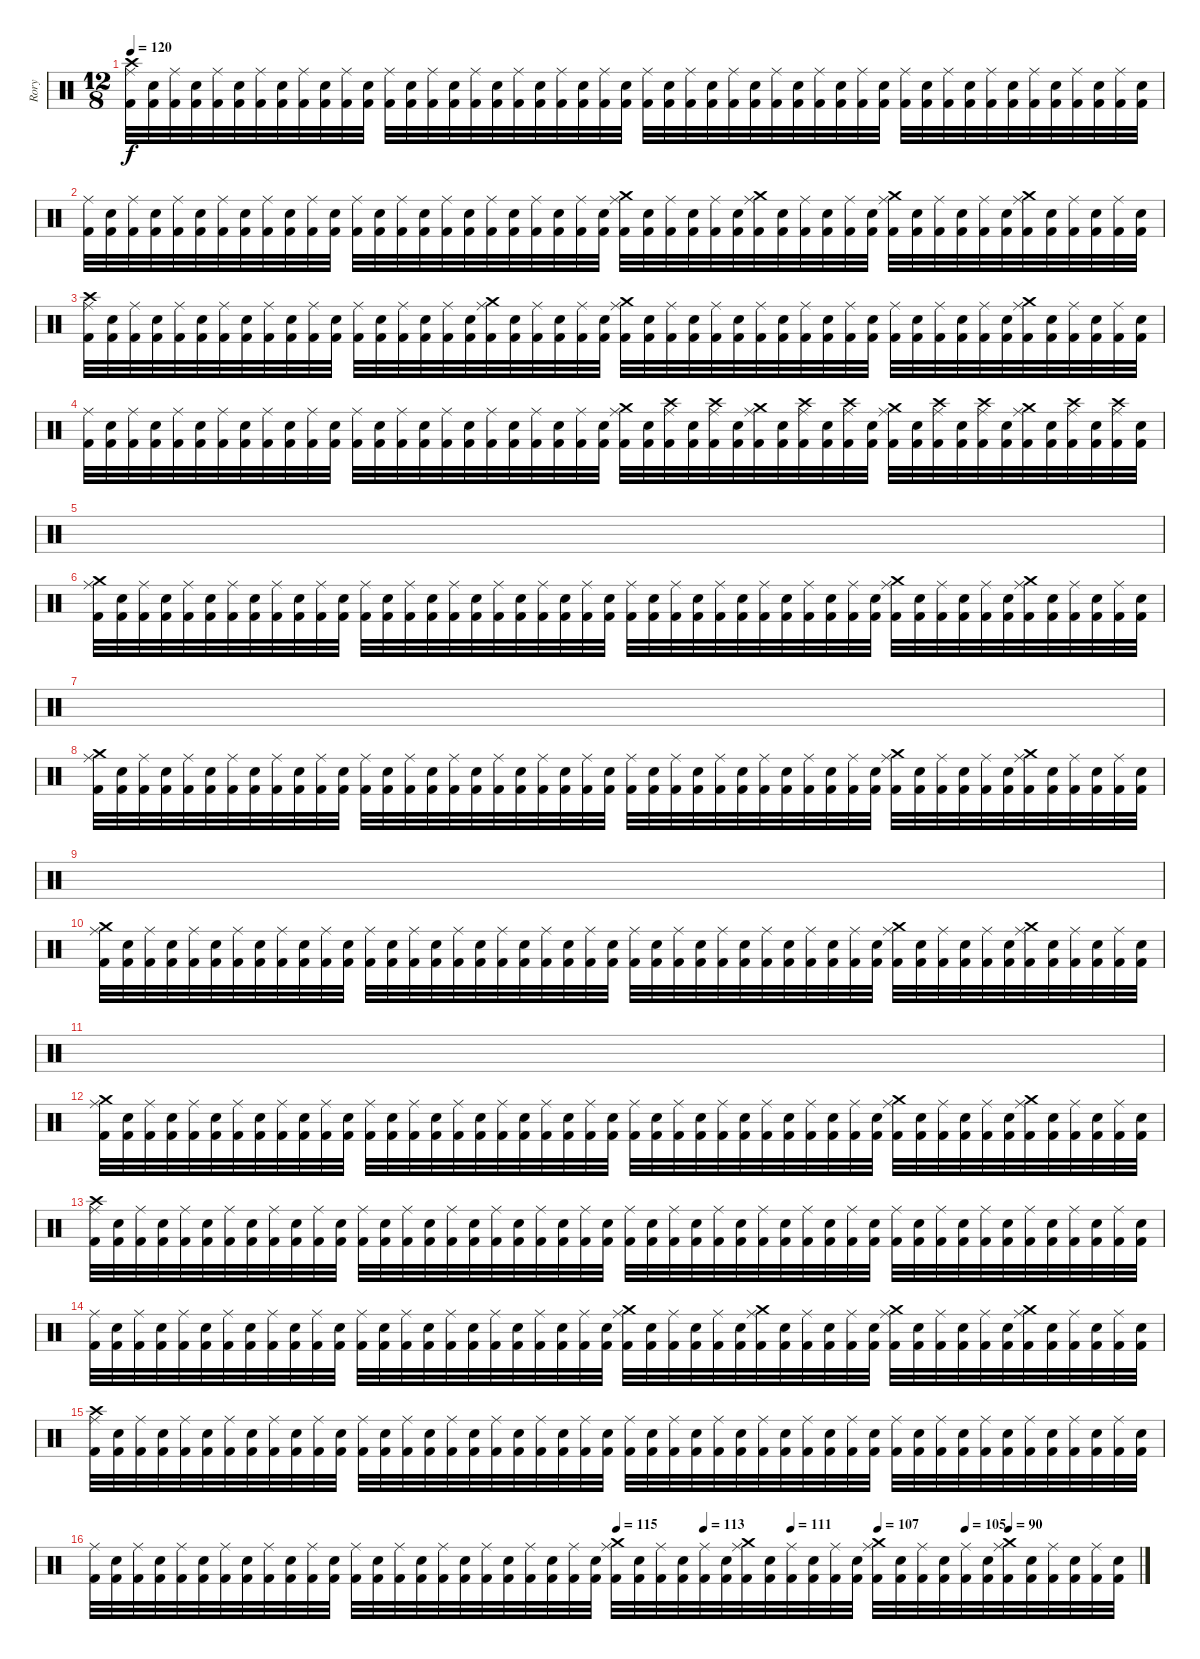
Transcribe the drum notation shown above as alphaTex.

\track ("Rory" "Rory") {instrument percussion}
\staff {score}
\articulation defaults
\ts (12 8)
\tempo 120
\clef neutral
\ks c
("Kick (hit) 2" "Crash high (hit)" "Ride (middle)").32{dy f} ("Kick (hit) 2" "Electric Snare (hit)").32 ("Kick (hit) 2" "Ride (middle)").32 ("Kick (hit) 2" "Electric Snare (hit)").32 ("Kick (hit) 2" "Ride (middle)").32 ("Kick (hit) 2" "Electric Snare (hit)").32 ("Kick (hit) 2" "Ride (middle)").32 ("Kick (hit) 2" "Electric Snare (hit)").32 ("Kick (hit) 2" "Ride (middle)").32 ("Kick (hit) 2" "Electric Snare (hit)").32 ("Kick (hit) 2" "Ride (middle)").32 ("Kick (hit) 2" "Electric Snare (hit)").32 ("Kick (hit) 2" "Ride (middle)").32 ("Kick (hit) 2" "Electric Snare (hit)").32 ("Kick (hit) 2" "Ride (middle)").32 ("Kick (hit) 2" "Electric Snare (hit)").32 ("Kick (hit) 2" "Ride (middle)").32 ("Kick (hit) 2" "Electric Snare (hit)").32 ("Kick (hit) 2" "Ride (middle)").32 ("Kick (hit) 2" "Electric Snare (hit)").32 ("Kick (hit) 2" "Ride (middle)").32 ("Kick (hit) 2" "Electric Snare (hit)").32 ("Kick (hit) 2" "Ride (middle)").32 ("Kick (hit) 2" "Electric Snare (hit)").32 ("Kick (hit) 2" "Ride (middle)").32 ("Kick (hit) 2" "Electric Snare (hit)").32 ("Kick (hit) 2" "Ride (middle)").32 ("Kick (hit) 2" "Electric Snare (hit)").32 ("Kick (hit) 2" "Ride (middle)").32 ("Kick (hit) 2" "Electric Snare (hit)").32 ("Kick (hit) 2" "Ride (middle)").32 ("Kick (hit) 2" "Electric Snare (hit)").32 ("Kick (hit) 2" "Ride (middle)").32 ("Kick (hit) 2" "Electric Snare (hit)").32 ("Kick (hit) 2" "Ride (middle)").32 ("Kick (hit) 2" "Electric Snare (hit)").32 ("Kick (hit) 2" "Ride (middle)").32 ("Kick (hit) 2" "Electric Snare (hit)").32 ("Kick (hit) 2" "Ride (middle)").32 ("Kick (hit) 2" "Electric Snare (hit)").32 ("Kick (hit) 2" "Ride (middle)").32 ("Kick (hit) 2" "Electric Snare (hit)").32 ("Kick (hit) 2" "Ride (middle)").32 ("Kick (hit) 2" "Electric Snare (hit)").32 ("Kick (hit) 2" "Ride (middle)").32 ("Kick (hit) 2" "Electric Snare (hit)").32 ("Kick (hit) 2" "Ride (middle)").32 ("Kick (hit) 2" "Electric Snare (hit)").32 |
("Kick (hit) 2" "Ride (middle)").32 ("Kick (hit) 2" "Electric Snare (hit)").32 ("Kick (hit) 2" "Ride (middle)").32 ("Kick (hit) 2" "Electric Snare (hit)").32 ("Kick (hit) 2" "Ride (middle)").32 ("Kick (hit) 2" "Electric Snare (hit)").32 ("Kick (hit) 2" "Ride (middle)").32 ("Kick (hit) 2" "Electric Snare (hit)").32 ("Kick (hit) 2" "Ride (middle)").32 ("Kick (hit) 2" "Electric Snare (hit)").32 ("Kick (hit) 2" "Ride (middle)").32 ("Kick (hit) 2" "Electric Snare (hit)").32 ("Kick (hit) 2" "Ride (middle)").32 ("Kick (hit) 2" "Electric Snare (hit)").32 ("Kick (hit) 2" "Ride (middle)").32 ("Kick (hit) 2" "Electric Snare (hit)").32 ("Kick (hit) 2" "Ride (middle)").32 ("Kick (hit) 2" "Electric Snare (hit)").32 ("Kick (hit) 2" "Ride (middle)").32 ("Kick (hit) 2" "Electric Snare (hit)").32 ("Kick (hit) 2" "Ride (middle)").32 ("Kick (hit) 2" "Electric Snare (hit)").32 ("Kick (hit) 2" "Ride (middle)").32 ("Kick (hit) 2" "Electric Snare (hit)").32 ("Kick (hit) 2" "Crash medium (hit)" "Ride (middle)").32 ("Kick (hit) 2" "Electric Snare (hit)").32 ("Kick (hit) 2" "Ride (middle)").32 ("Kick (hit) 2" "Electric Snare (hit)").32 ("Kick (hit) 2" "Ride (middle)").32 ("Kick (hit) 2" "Electric Snare (hit)").32 ("Kick (hit) 2" "Crash medium (hit)" "Ride (middle)").32 ("Kick (hit) 2" "Electric Snare (hit)").32 ("Kick (hit) 2" "Ride (middle)").32 ("Kick (hit) 2" "Electric Snare (hit)").32 ("Kick (hit) 2" "Ride (middle)").32 ("Kick (hit) 2" "Electric Snare (hit)").32 ("Kick (hit) 2" "Crash medium (hit)" "Ride (middle)").32 ("Kick (hit) 2" "Electric Snare (hit)").32 ("Kick (hit) 2" "Ride (middle)").32 ("Kick (hit) 2" "Electric Snare (hit)").32 ("Kick (hit) 2" "Ride (middle)").32 ("Kick (hit) 2" "Electric Snare (hit)").32 ("Kick (hit) 2" "Crash medium (hit)" "Ride (middle)").32 ("Kick (hit) 2" "Electric Snare (hit)").32 ("Kick (hit) 2" "Ride (middle)").32 ("Kick (hit) 2" "Electric Snare (hit)").32 ("Kick (hit) 2" "Ride (middle)").32 ("Kick (hit) 2" "Electric Snare (hit)").32 |
("Kick (hit) 2" "Crash high (hit)" "Ride (middle)").32 ("Kick (hit) 2" "Electric Snare (hit)").32 ("Kick (hit) 2" "Ride (middle)").32 ("Kick (hit) 2" "Electric Snare (hit)").32 ("Kick (hit) 2" "Ride (middle)").32 ("Kick (hit) 2" "Electric Snare (hit)").32 ("Kick (hit) 2" "Ride (middle)").32 ("Kick (hit) 2" "Electric Snare (hit)").32 ("Kick (hit) 2" "Ride (middle)").32 ("Kick (hit) 2" "Electric Snare (hit)").32 ("Kick (hit) 2" "Ride (middle)").32 ("Kick (hit) 2" "Electric Snare (hit)").32 ("Kick (hit) 2" "Ride (middle)").32 ("Kick (hit) 2" "Electric Snare (hit)").32 ("Kick (hit) 2" "Ride (middle)").32 ("Kick (hit) 2" "Electric Snare (hit)").32 ("Kick (hit) 2" "Ride (middle)").32 ("Kick (hit) 2" "Electric Snare (hit)").32 ("Kick (hit) 2" "Crash medium (hit)" "Ride (middle)").32 ("Kick (hit) 2" "Electric Snare (hit)").32 ("Kick (hit) 2" "Ride (middle)").32 ("Kick (hit) 2" "Electric Snare (hit)").32 ("Kick (hit) 2" "Ride (middle)").32 ("Kick (hit) 2" "Electric Snare (hit)").32 ("Kick (hit) 2" "Crash medium (hit)" "Ride (middle)").32 ("Kick (hit) 2" "Electric Snare (hit)").32 ("Kick (hit) 2" "Ride (middle)").32 ("Kick (hit) 2" "Electric Snare (hit)").32 ("Kick (hit) 2" "Ride (middle)").32 ("Kick (hit) 2" "Electric Snare (hit)").32 ("Kick (hit) 2" "Ride (middle)").32 ("Kick (hit) 2" "Electric Snare (hit)").32 ("Kick (hit) 2" "Ride (middle)").32 ("Kick (hit) 2" "Electric Snare (hit)").32 ("Kick (hit) 2" "Ride (middle)").32 ("Kick (hit) 2" "Electric Snare (hit)").32 ("Kick (hit) 2" "Ride (middle)").32 ("Kick (hit) 2" "Electric Snare (hit)").32 ("Kick (hit) 2" "Ride (middle)").32 ("Kick (hit) 2" "Electric Snare (hit)").32 ("Kick (hit) 2" "Ride (middle)").32 ("Kick (hit) 2" "Electric Snare (hit)").32 ("Kick (hit) 2" "Crash medium (hit)" "Ride (middle)").32 ("Kick (hit) 2" "Electric Snare (hit)").32 ("Kick (hit) 2" "Ride (middle)").32 ("Kick (hit) 2" "Electric Snare (hit)").32 ("Kick (hit) 2" "Ride (middle)").32 ("Kick (hit) 2" "Electric Snare (hit)").32 |
("Kick (hit) 2" "Ride (middle)").32 ("Kick (hit) 2" "Electric Snare (hit)").32 ("Kick (hit) 2" "Ride (middle)").32 ("Kick (hit) 2" "Electric Snare (hit)").32 ("Kick (hit) 2" "Ride (middle)").32 ("Kick (hit) 2" "Electric Snare (hit)").32 ("Kick (hit) 2" "Ride (middle)").32 ("Kick (hit) 2" "Electric Snare (hit)").32 ("Kick (hit) 2" "Ride (middle)").32 ("Kick (hit) 2" "Electric Snare (hit)").32 ("Kick (hit) 2" "Ride (middle)").32 ("Kick (hit) 2" "Electric Snare (hit)").32 ("Kick (hit) 2" "Ride (middle)").32 ("Kick (hit) 2" "Electric Snare (hit)").32 ("Kick (hit) 2" "Ride (middle)").32 ("Kick (hit) 2" "Electric Snare (hit)").32 ("Kick (hit) 2" "Ride (middle)").32 ("Kick (hit) 2" "Electric Snare (hit)").32 ("Kick (hit) 2" "Ride (middle)").32 ("Kick (hit) 2" "Electric Snare (hit)").32 ("Kick (hit) 2" "Ride (middle)").32 ("Kick (hit) 2" "Electric Snare (hit)").32 ("Kick (hit) 2" "Ride (middle)").32 ("Kick (hit) 2" "Electric Snare (hit)").32 ("Kick (hit) 2" "Crash medium (hit)" "Ride (middle)").32 ("Kick (hit) 2" "Electric Snare (hit)").32 ("Kick (hit) 2" "Crash high (hit)" "Ride (middle)").32 ("Kick (hit) 2" "Electric Snare (hit)").32 ("Kick (hit) 2" "Crash high (hit)" "Ride (middle)").32 ("Kick (hit) 2" "Electric Snare (hit)").32 ("Kick (hit) 2" "Crash medium (hit)" "Ride (middle)").32 ("Kick (hit) 2" "Electric Snare (hit)").32 ("Kick (hit) 2" "Crash high (hit)" "Ride (middle)").32 ("Kick (hit) 2" "Electric Snare (hit)").32 ("Kick (hit) 2" "Crash high (hit)" "Ride (middle)").32 ("Kick (hit) 2" "Electric Snare (hit)").32 ("Kick (hit) 2" "Crash medium (hit)" "Ride (middle)").32 ("Kick (hit) 2" "Electric Snare (hit)").32 ("Kick (hit) 2" "Crash high (hit)" "Ride (middle)").32 ("Kick (hit) 2" "Electric Snare (hit)").32 ("Kick (hit) 2" "Crash high (hit)" "Ride (middle)").32 ("Kick (hit) 2" "Electric Snare (hit)").32 ("Kick (hit) 2" "Crash medium (hit)" "Ride (middle)").32 ("Kick (hit) 2" "Electric Snare (hit)").32 ("Kick (hit) 2" "Crash high (hit)" "Ride (middle)").32 ("Kick (hit) 2" "Electric Snare (hit)").32 ("Kick (hit) 2" "Crash high (hit)" "Ride (middle)").32 ("Kick (hit) 2" "Electric Snare (hit)").32 |
|
("Kick (hit) 2" "Crash medium (hit)" "Ride (middle)").32 ("Kick (hit) 2" "Electric Snare (hit)").32 ("Kick (hit) 2" "Ride (middle)").32 ("Kick (hit) 2" "Electric Snare (hit)").32 ("Kick (hit) 2" "Ride (middle)").32 ("Kick (hit) 2" "Electric Snare (hit)").32 ("Kick (hit) 2" "Ride (middle)").32 ("Kick (hit) 2" "Electric Snare (hit)").32 ("Kick (hit) 2" "Ride (middle)").32 ("Kick (hit) 2" "Electric Snare (hit)").32 ("Kick (hit) 2" "Ride (middle)").32 ("Kick (hit) 2" "Electric Snare (hit)").32 ("Kick (hit) 2" "Ride (middle)").32 ("Kick (hit) 2" "Electric Snare (hit)").32 ("Kick (hit) 2" "Ride (middle)").32 ("Kick (hit) 2" "Electric Snare (hit)").32 ("Kick (hit) 2" "Ride (middle)").32 ("Kick (hit) 2" "Electric Snare (hit)").32 ("Kick (hit) 2" "Ride (middle)").32 ("Kick (hit) 2" "Electric Snare (hit)").32 ("Kick (hit) 2" "Ride (middle)").32 ("Kick (hit) 2" "Electric Snare (hit)").32 ("Kick (hit) 2" "Ride (middle)").32 ("Kick (hit) 2" "Electric Snare (hit)").32 ("Kick (hit) 2" "Ride (middle)").32 ("Kick (hit) 2" "Electric Snare (hit)").32 ("Kick (hit) 2" "Ride (middle)").32 ("Kick (hit) 2" "Electric Snare (hit)").32 ("Kick (hit) 2" "Ride (middle)").32 ("Kick (hit) 2" "Electric Snare (hit)").32 ("Kick (hit) 2" "Ride (middle)").32 ("Kick (hit) 2" "Electric Snare (hit)").32 ("Kick (hit) 2" "Ride (middle)").32 ("Kick (hit) 2" "Electric Snare (hit)").32 ("Kick (hit) 2" "Ride (middle)").32 ("Kick (hit) 2" "Electric Snare (hit)").32 ("Kick (hit) 2" "Crash medium (hit)" "Ride (middle)").32 ("Kick (hit) 2" "Electric Snare (hit)").32 ("Kick (hit) 2" "Ride (middle)").32 ("Kick (hit) 2" "Electric Snare (hit)").32 ("Kick (hit) 2" "Ride (middle)").32 ("Kick (hit) 2" "Electric Snare (hit)").32 ("Kick (hit) 2" "Crash medium (hit)" "Ride (middle)").32 ("Kick (hit) 2" "Electric Snare (hit)").32 ("Kick (hit) 2" "Ride (middle)").32 ("Kick (hit) 2" "Electric Snare (hit)").32 ("Kick (hit) 2" "Ride (middle)").32 ("Kick (hit) 2" "Electric Snare (hit)").32 |
|
("Kick (hit) 2" "Crash medium (hit)" "Ride (middle)").32 ("Kick (hit) 2" "Electric Snare (hit)").32 ("Kick (hit) 2" "Ride (middle)").32 ("Kick (hit) 2" "Electric Snare (hit)").32 ("Kick (hit) 2" "Ride (middle)").32 ("Kick (hit) 2" "Electric Snare (hit)").32 ("Kick (hit) 2" "Ride (middle)").32 ("Kick (hit) 2" "Electric Snare (hit)").32 ("Kick (hit) 2" "Ride (middle)").32 ("Kick (hit) 2" "Electric Snare (hit)").32 ("Kick (hit) 2" "Ride (middle)").32 ("Kick (hit) 2" "Electric Snare (hit)").32 ("Kick (hit) 2" "Ride (middle)").32 ("Kick (hit) 2" "Electric Snare (hit)").32 ("Kick (hit) 2" "Ride (middle)").32 ("Kick (hit) 2" "Electric Snare (hit)").32 ("Kick (hit) 2" "Ride (middle)").32 ("Kick (hit) 2" "Electric Snare (hit)").32 ("Kick (hit) 2" "Ride (middle)").32 ("Kick (hit) 2" "Electric Snare (hit)").32 ("Kick (hit) 2" "Ride (middle)").32 ("Kick (hit) 2" "Electric Snare (hit)").32 ("Kick (hit) 2" "Ride (middle)").32 ("Kick (hit) 2" "Electric Snare (hit)").32 ("Kick (hit) 2" "Ride (middle)").32 ("Kick (hit) 2" "Electric Snare (hit)").32 ("Kick (hit) 2" "Ride (middle)").32 ("Kick (hit) 2" "Electric Snare (hit)").32 ("Kick (hit) 2" "Ride (middle)").32 ("Kick (hit) 2" "Electric Snare (hit)").32 ("Kick (hit) 2" "Ride (middle)").32 ("Kick (hit) 2" "Electric Snare (hit)").32 ("Kick (hit) 2" "Ride (middle)").32 ("Kick (hit) 2" "Electric Snare (hit)").32 ("Kick (hit) 2" "Ride (middle)").32 ("Kick (hit) 2" "Electric Snare (hit)").32 ("Kick (hit) 2" "Crash medium (hit)" "Ride (middle)").32 ("Kick (hit) 2" "Electric Snare (hit)").32 ("Kick (hit) 2" "Ride (middle)").32 ("Kick (hit) 2" "Electric Snare (hit)").32 ("Kick (hit) 2" "Ride (middle)").32 ("Kick (hit) 2" "Electric Snare (hit)").32 ("Kick (hit) 2" "Crash medium (hit)" "Ride (middle)").32 ("Kick (hit) 2" "Electric Snare (hit)").32 ("Kick (hit) 2" "Ride (middle)").32 ("Kick (hit) 2" "Electric Snare (hit)").32 ("Kick (hit) 2" "Ride (middle)").32 ("Kick (hit) 2" "Electric Snare (hit)").32 |
|
("Kick (hit) 2" "Crash medium (hit)" "Ride (middle)").32 ("Kick (hit) 2" "Electric Snare (hit)").32 ("Kick (hit) 2" "Ride (middle)").32 ("Kick (hit) 2" "Electric Snare (hit)").32 ("Kick (hit) 2" "Ride (middle)").32 ("Kick (hit) 2" "Electric Snare (hit)").32 ("Kick (hit) 2" "Ride (middle)").32 ("Kick (hit) 2" "Electric Snare (hit)").32 ("Kick (hit) 2" "Ride (middle)").32 ("Kick (hit) 2" "Electric Snare (hit)").32 ("Kick (hit) 2" "Ride (middle)").32 ("Kick (hit) 2" "Electric Snare (hit)").32 ("Kick (hit) 2" "Ride (middle)").32 ("Kick (hit) 2" "Electric Snare (hit)").32 ("Kick (hit) 2" "Ride (middle)").32 ("Kick (hit) 2" "Electric Snare (hit)").32 ("Kick (hit) 2" "Ride (middle)").32 ("Kick (hit) 2" "Electric Snare (hit)").32 ("Kick (hit) 2" "Ride (middle)").32 ("Kick (hit) 2" "Electric Snare (hit)").32 ("Kick (hit) 2" "Ride (middle)").32 ("Kick (hit) 2" "Electric Snare (hit)").32 ("Kick (hit) 2" "Ride (middle)").32 ("Kick (hit) 2" "Electric Snare (hit)").32 ("Kick (hit) 2" "Ride (middle)").32 ("Kick (hit) 2" "Electric Snare (hit)").32 ("Kick (hit) 2" "Ride (middle)").32 ("Kick (hit) 2" "Electric Snare (hit)").32 ("Kick (hit) 2" "Ride (middle)").32 ("Kick (hit) 2" "Electric Snare (hit)").32 ("Kick (hit) 2" "Ride (middle)").32 ("Kick (hit) 2" "Electric Snare (hit)").32 ("Kick (hit) 2" "Ride (middle)").32 ("Kick (hit) 2" "Electric Snare (hit)").32 ("Kick (hit) 2" "Ride (middle)").32 ("Kick (hit) 2" "Electric Snare (hit)").32 ("Kick (hit) 2" "Crash medium (hit)" "Ride (middle)").32 ("Kick (hit) 2" "Electric Snare (hit)").32 ("Kick (hit) 2" "Ride (middle)").32 ("Kick (hit) 2" "Electric Snare (hit)").32 ("Kick (hit) 2" "Ride (middle)").32 ("Kick (hit) 2" "Electric Snare (hit)").32 ("Kick (hit) 2" "Crash medium (hit)" "Ride (middle)").32 ("Kick (hit) 2" "Electric Snare (hit)").32 ("Kick (hit) 2" "Ride (middle)").32 ("Kick (hit) 2" "Electric Snare (hit)").32 ("Kick (hit) 2" "Ride (middle)").32 ("Kick (hit) 2" "Electric Snare (hit)").32 |
|
("Kick (hit) 2" "Crash medium (hit)" "Ride (middle)").32 ("Kick (hit) 2" "Electric Snare (hit)").32 ("Kick (hit) 2" "Ride (middle)").32 ("Kick (hit) 2" "Electric Snare (hit)").32 ("Kick (hit) 2" "Ride (middle)").32 ("Kick (hit) 2" "Electric Snare (hit)").32 ("Kick (hit) 2" "Ride (middle)").32 ("Kick (hit) 2" "Electric Snare (hit)").32 ("Kick (hit) 2" "Ride (middle)").32 ("Kick (hit) 2" "Electric Snare (hit)").32 ("Kick (hit) 2" "Ride (middle)").32 ("Kick (hit) 2" "Electric Snare (hit)").32 ("Kick (hit) 2" "Ride (middle)").32 ("Kick (hit) 2" "Electric Snare (hit)").32 ("Kick (hit) 2" "Ride (middle)").32 ("Kick (hit) 2" "Electric Snare (hit)").32 ("Kick (hit) 2" "Ride (middle)").32 ("Kick (hit) 2" "Electric Snare (hit)").32 ("Kick (hit) 2" "Ride (middle)").32 ("Kick (hit) 2" "Electric Snare (hit)").32 ("Kick (hit) 2" "Ride (middle)").32 ("Kick (hit) 2" "Electric Snare (hit)").32 ("Kick (hit) 2" "Ride (middle)").32 ("Kick (hit) 2" "Electric Snare (hit)").32 ("Kick (hit) 2" "Ride (middle)").32 ("Kick (hit) 2" "Electric Snare (hit)").32 ("Kick (hit) 2" "Ride (middle)").32 ("Kick (hit) 2" "Electric Snare (hit)").32 ("Kick (hit) 2" "Ride (middle)").32 ("Kick (hit) 2" "Electric Snare (hit)").32 ("Kick (hit) 2" "Ride (middle)").32 ("Kick (hit) 2" "Electric Snare (hit)").32 ("Kick (hit) 2" "Ride (middle)").32 ("Kick (hit) 2" "Electric Snare (hit)").32 ("Kick (hit) 2" "Ride (middle)").32 ("Kick (hit) 2" "Electric Snare (hit)").32 ("Kick (hit) 2" "Crash medium (hit)" "Ride (middle)").32 ("Kick (hit) 2" "Electric Snare (hit)").32 ("Kick (hit) 2" "Ride (middle)").32 ("Kick (hit) 2" "Electric Snare (hit)").32 ("Kick (hit) 2" "Ride (middle)").32 ("Kick (hit) 2" "Electric Snare (hit)").32 ("Kick (hit) 2" "Crash medium (hit)" "Ride (middle)").32 ("Kick (hit) 2" "Electric Snare (hit)").32 ("Kick (hit) 2" "Ride (middle)").32 ("Kick (hit) 2" "Electric Snare (hit)").32 ("Kick (hit) 2" "Ride (middle)").32 ("Kick (hit) 2" "Electric Snare (hit)").32 |
("Kick (hit) 2" "Crash high (hit)" "Ride (middle)").32 ("Kick (hit) 2" "Electric Snare (hit)").32 ("Kick (hit) 2" "Ride (middle)").32 ("Kick (hit) 2" "Electric Snare (hit)").32 ("Kick (hit) 2" "Ride (middle)").32 ("Kick (hit) 2" "Electric Snare (hit)").32 ("Kick (hit) 2" "Ride (middle)").32 ("Kick (hit) 2" "Electric Snare (hit)").32 ("Kick (hit) 2" "Ride (middle)").32 ("Kick (hit) 2" "Electric Snare (hit)").32 ("Kick (hit) 2" "Ride (middle)").32 ("Kick (hit) 2" "Electric Snare (hit)").32 ("Kick (hit) 2" "Ride (middle)").32 ("Kick (hit) 2" "Electric Snare (hit)").32 ("Kick (hit) 2" "Ride (middle)").32 ("Kick (hit) 2" "Electric Snare (hit)").32 ("Kick (hit) 2" "Ride (middle)").32 ("Kick (hit) 2" "Electric Snare (hit)").32 ("Kick (hit) 2" "Ride (middle)").32 ("Kick (hit) 2" "Electric Snare (hit)").32 ("Kick (hit) 2" "Ride (middle)").32 ("Kick (hit) 2" "Electric Snare (hit)").32 ("Kick (hit) 2" "Ride (middle)").32 ("Kick (hit) 2" "Electric Snare (hit)").32 ("Kick (hit) 2" "Ride (middle)").32 ("Kick (hit) 2" "Electric Snare (hit)").32 ("Kick (hit) 2" "Ride (middle)").32 ("Kick (hit) 2" "Electric Snare (hit)").32 ("Kick (hit) 2" "Ride (middle)").32 ("Kick (hit) 2" "Electric Snare (hit)").32 ("Kick (hit) 2" "Ride (middle)").32 ("Kick (hit) 2" "Electric Snare (hit)").32 ("Kick (hit) 2" "Ride (middle)").32 ("Kick (hit) 2" "Electric Snare (hit)").32 ("Kick (hit) 2" "Ride (middle)").32 ("Kick (hit) 2" "Electric Snare (hit)").32 ("Kick (hit) 2" "Ride (middle)").32 ("Kick (hit) 2" "Electric Snare (hit)").32 ("Kick (hit) 2" "Ride (middle)").32 ("Kick (hit) 2" "Electric Snare (hit)").32 ("Kick (hit) 2" "Ride (middle)").32 ("Kick (hit) 2" "Electric Snare (hit)").32 ("Kick (hit) 2" "Ride (middle)").32 ("Kick (hit) 2" "Electric Snare (hit)").32 ("Kick (hit) 2" "Ride (middle)").32 ("Kick (hit) 2" "Electric Snare (hit)").32 ("Kick (hit) 2" "Ride (middle)").32 ("Kick (hit) 2" "Electric Snare (hit)").32 |
("Kick (hit) 2" "Ride (middle)").32 ("Kick (hit) 2" "Electric Snare (hit)").32 ("Kick (hit) 2" "Ride (middle)").32 ("Kick (hit) 2" "Electric Snare (hit)").32 ("Kick (hit) 2" "Ride (middle)").32 ("Kick (hit) 2" "Electric Snare (hit)").32 ("Kick (hit) 2" "Ride (middle)").32 ("Kick (hit) 2" "Electric Snare (hit)").32 ("Kick (hit) 2" "Ride (middle)").32 ("Kick (hit) 2" "Electric Snare (hit)").32 ("Kick (hit) 2" "Ride (middle)").32 ("Kick (hit) 2" "Electric Snare (hit)").32 ("Kick (hit) 2" "Ride (middle)").32 ("Kick (hit) 2" "Electric Snare (hit)").32 ("Kick (hit) 2" "Ride (middle)").32 ("Kick (hit) 2" "Electric Snare (hit)").32 ("Kick (hit) 2" "Ride (middle)").32 ("Kick (hit) 2" "Electric Snare (hit)").32 ("Kick (hit) 2" "Ride (middle)").32 ("Kick (hit) 2" "Electric Snare (hit)").32 ("Kick (hit) 2" "Ride (middle)").32 ("Kick (hit) 2" "Electric Snare (hit)").32 ("Kick (hit) 2" "Ride (middle)").32 ("Kick (hit) 2" "Electric Snare (hit)").32 ("Kick (hit) 2" "Crash medium (hit)" "Ride (middle)").32 ("Kick (hit) 2" "Electric Snare (hit)").32 ("Kick (hit) 2" "Ride (middle)").32 ("Kick (hit) 2" "Electric Snare (hit)").32 ("Kick (hit) 2" "Ride (middle)").32 ("Kick (hit) 2" "Electric Snare (hit)").32 ("Kick (hit) 2" "Crash medium (hit)" "Ride (middle)").32 ("Kick (hit) 2" "Electric Snare (hit)").32 ("Kick (hit) 2" "Ride (middle)").32 ("Kick (hit) 2" "Electric Snare (hit)").32 ("Kick (hit) 2" "Ride (middle)").32 ("Kick (hit) 2" "Electric Snare (hit)").32 ("Kick (hit) 2" "Crash medium (hit)" "Ride (middle)").32 ("Kick (hit) 2" "Electric Snare (hit)").32 ("Kick (hit) 2" "Ride (middle)").32 ("Kick (hit) 2" "Electric Snare (hit)").32 ("Kick (hit) 2" "Ride (middle)").32 ("Kick (hit) 2" "Electric Snare (hit)").32 ("Kick (hit) 2" "Crash medium (hit)" "Ride (middle)").32 ("Kick (hit) 2" "Electric Snare (hit)").32 ("Kick (hit) 2" "Ride (middle)").32 ("Kick (hit) 2" "Electric Snare (hit)").32 ("Kick (hit) 2" "Ride (middle)").32 ("Kick (hit) 2" "Electric Snare (hit)").32 |
("Kick (hit) 2" "Crash high (hit)" "Ride (middle)").32 ("Kick (hit) 2" "Electric Snare (hit)").32 ("Kick (hit) 2" "Ride (middle)").32 ("Kick (hit) 2" "Electric Snare (hit)").32 ("Kick (hit) 2" "Ride (middle)").32 ("Kick (hit) 2" "Electric Snare (hit)").32 ("Kick (hit) 2" "Ride (middle)").32 ("Kick (hit) 2" "Electric Snare (hit)").32 ("Kick (hit) 2" "Ride (middle)").32 ("Kick (hit) 2" "Electric Snare (hit)").32 ("Kick (hit) 2" "Ride (middle)").32 ("Kick (hit) 2" "Electric Snare (hit)").32 ("Kick (hit) 2" "Ride (middle)").32 ("Kick (hit) 2" "Electric Snare (hit)").32 ("Kick (hit) 2" "Ride (middle)").32 ("Kick (hit) 2" "Electric Snare (hit)").32 ("Kick (hit) 2" "Ride (middle)").32 ("Kick (hit) 2" "Electric Snare (hit)").32 ("Kick (hit) 2" "Ride (middle)").32 ("Kick (hit) 2" "Electric Snare (hit)").32 ("Kick (hit) 2" "Ride (middle)").32 ("Kick (hit) 2" "Electric Snare (hit)").32 ("Kick (hit) 2" "Ride (middle)").32 ("Kick (hit) 2" "Electric Snare (hit)").32 ("Kick (hit) 2" "Ride (middle)").32 ("Kick (hit) 2" "Electric Snare (hit)").32 ("Kick (hit) 2" "Ride (middle)").32 ("Kick (hit) 2" "Electric Snare (hit)").32 ("Kick (hit) 2" "Ride (middle)").32 ("Kick (hit) 2" "Electric Snare (hit)").32 ("Kick (hit) 2" "Ride (middle)").32 ("Kick (hit) 2" "Electric Snare (hit)").32 ("Kick (hit) 2" "Ride (middle)").32 ("Kick (hit) 2" "Electric Snare (hit)").32 ("Kick (hit) 2" "Ride (middle)").32 ("Kick (hit) 2" "Electric Snare (hit)").32 ("Kick (hit) 2" "Ride (middle)").32 ("Kick (hit) 2" "Electric Snare (hit)").32 ("Kick (hit) 2" "Ride (middle)").32 ("Kick (hit) 2" "Electric Snare (hit)").32 ("Kick (hit) 2" "Ride (middle)").32 ("Kick (hit) 2" "Electric Snare (hit)").32 ("Kick (hit) 2" "Ride (middle)").32 ("Kick (hit) 2" "Electric Snare (hit)").32 ("Kick (hit) 2" "Ride (middle)").32 ("Kick (hit) 2" "Electric Snare (hit)").32 ("Kick (hit) 2" "Ride (middle)").32 ("Kick (hit) 2" "Electric Snare (hit)").32 |
\tempo (115 0.5)
\tempo (113 0.5833333333333334)
\tempo (111 0.6666666666666666)
\tempo (107 0.75)
\tempo (105 0.8333333333333334)
\tempo (90 0.875)
("Kick (hit) 2" "Ride (middle)").32 ("Kick (hit) 2" "Electric Snare (hit)").32 ("Kick (hit) 2" "Ride (middle)").32 ("Kick (hit) 2" "Electric Snare (hit)").32 ("Kick (hit) 2" "Ride (middle)").32 ("Kick (hit) 2" "Electric Snare (hit)").32 ("Kick (hit) 2" "Ride (middle)").32 ("Kick (hit) 2" "Electric Snare (hit)").32 ("Kick (hit) 2" "Ride (middle)").32 ("Kick (hit) 2" "Electric Snare (hit)").32 ("Kick (hit) 2" "Ride (middle)").32 ("Kick (hit) 2" "Electric Snare (hit)").32 ("Kick (hit) 2" "Ride (middle)").32 ("Kick (hit) 2" "Electric Snare (hit)").32 ("Kick (hit) 2" "Ride (middle)").32 ("Kick (hit) 2" "Electric Snare (hit)").32 ("Kick (hit) 2" "Ride (middle)").32 ("Kick (hit) 2" "Electric Snare (hit)").32 ("Kick (hit) 2" "Ride (middle)").32 ("Kick (hit) 2" "Electric Snare (hit)").32 ("Kick (hit) 2" "Ride (middle)").32 ("Kick (hit) 2" "Electric Snare (hit)").32 ("Kick (hit) 2" "Ride (middle)").32 ("Kick (hit) 2" "Electric Snare (hit)").32 ("Kick (hit) 2" "Crash medium (hit)" "Ride (middle)").32 ("Kick (hit) 2" "Electric Snare (hit)").32 ("Kick (hit) 2" "Ride (middle)").32 ("Kick (hit) 2" "Electric Snare (hit)").32 ("Kick (hit) 2" "Ride (middle)").32 ("Kick (hit) 2" "Electric Snare (hit)").32 ("Kick (hit) 2" "Crash medium (hit)" "Ride (middle)").32 ("Kick (hit) 2" "Electric Snare (hit)").32 ("Kick (hit) 2" "Ride (middle)").32 ("Kick (hit) 2" "Electric Snare (hit)").32 ("Kick (hit) 2" "Ride (middle)").32 ("Kick (hit) 2" "Electric Snare (hit)").32 ("Kick (hit) 2" "Crash medium (hit)" "Ride (middle)").32 ("Kick (hit) 2" "Electric Snare (hit)").32 ("Kick (hit) 2" "Ride (middle)").32 ("Kick (hit) 2" "Electric Snare (hit)").32 ("Kick (hit) 2" "Ride (middle)").32 ("Kick (hit) 2" "Electric Snare (hit)").32 ("Kick (hit) 2" "Crash medium (hit)" "Ride (middle)").32 ("Kick (hit) 2" "Electric Snare (hit)").32 ("Kick (hit) 2" "Ride (middle)").32 ("Kick (hit) 2" "Electric Snare (hit)").32 ("Kick (hit) 2" "Ride (middle)").32 ("Kick (hit) 2" "Electric Snare (hit)").32
